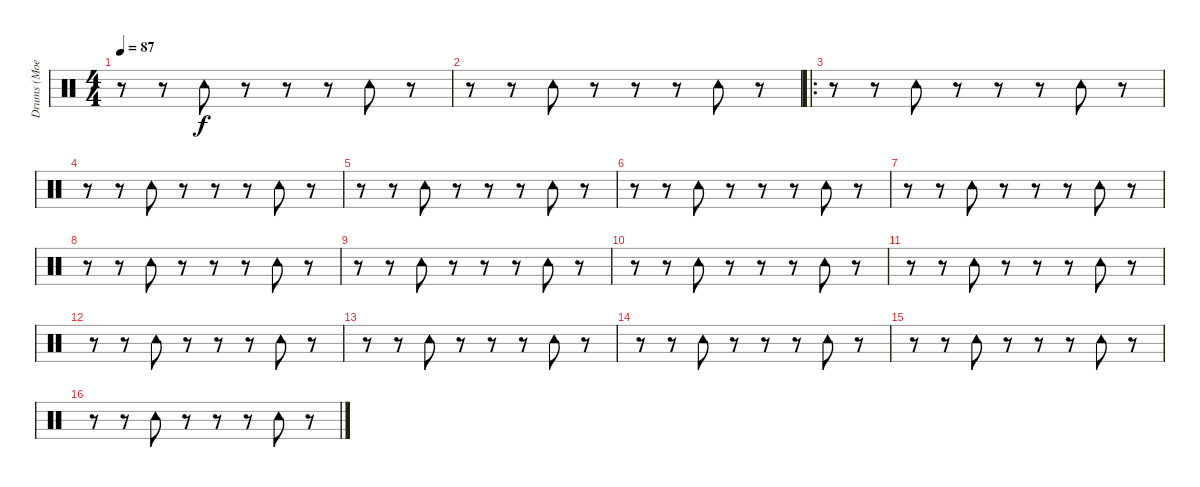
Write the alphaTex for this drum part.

\track ("Drums (Moe Tucker)" "Drums (Moe") {instrument percussion}
\staff {score}
\articulation defaults
\ts (4 4)
\tempo 87
\clef neutral
\ks c
r.8{dy f} r.8 "Tambourine (hit)".8 r.8 r.8 r.8 "Tambourine (hit)".8 r.8 |
r.8 r.8 "Tambourine (hit)".8 r.8 r.8 r.8 "Tambourine (hit)".8 r.8 |
\ro
r.8 r.8 "Tambourine (hit)".8 r.8 r.8 r.8 "Tambourine (hit)".8 r.8 |
r.8 r.8 "Tambourine (hit)".8 r.8 r.8 r.8 "Tambourine (hit)".8 r.8 |
r.8 r.8 "Tambourine (hit)".8 r.8 r.8 r.8 "Tambourine (hit)".8 r.8 |
r.8 r.8 "Tambourine (hit)".8 r.8 r.8 r.8 "Tambourine (hit)".8 r.8 |
r.8 r.8 "Tambourine (hit)".8 r.8 r.8 r.8 "Tambourine (hit)".8 r.8 |
r.8 r.8 "Tambourine (hit)".8 r.8 r.8 r.8 "Tambourine (hit)".8 r.8 |
r.8 r.8 "Tambourine (hit)".8 r.8 r.8 r.8 "Tambourine (hit)".8 r.8 |
r.8 r.8 "Tambourine (hit)".8 r.8 r.8 r.8 "Tambourine (hit)".8 r.8 |
r.8 r.8 "Tambourine (hit)".8 r.8 r.8 r.8 "Tambourine (hit)".8 r.8 |
r.8 r.8 "Tambourine (hit)".8 r.8 r.8 r.8 "Tambourine (hit)".8 r.8 |
r.8 r.8 "Tambourine (hit)".8 r.8 r.8 r.8 "Tambourine (hit)".8 r.8 |
r.8 r.8 "Tambourine (hit)".8 r.8 r.8 r.8 "Tambourine (hit)".8 r.8 |
r.8 r.8 "Tambourine (hit)".8 r.8 r.8 r.8 "Tambourine (hit)".8 r.8 |
r.8 r.8 "Tambourine (hit)".8 r.8 r.8 r.8 "Tambourine (hit)".8 r.8
